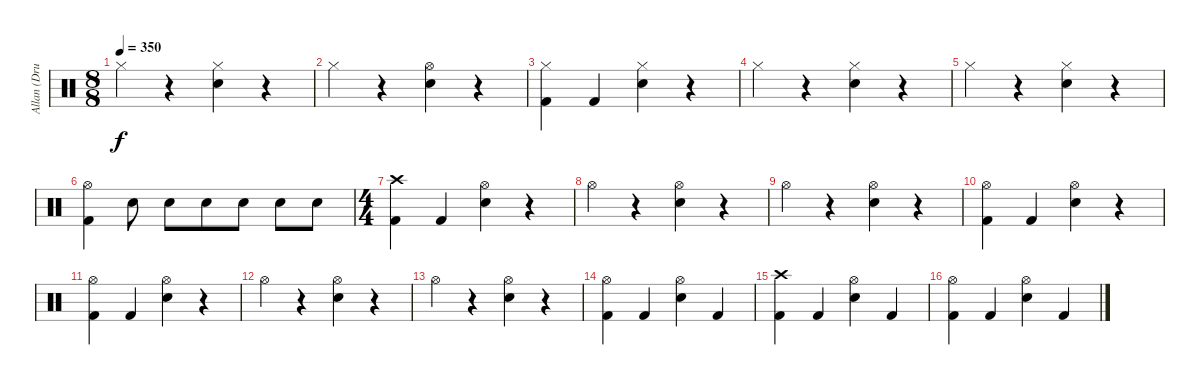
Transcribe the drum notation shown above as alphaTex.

\track ("Allan (Drums)" "Allan (Dru") {instrument percussion}
\staff {score}
\articulation defaults
\ts (8 8)
\tempo 350
\clef neutral
\ks c "Hi-Hat (closed)".4{dy f}
r.4 ("Hi-Hat (closed)" "Snare (hit) 2").4 r.4 |
"Hi-Hat (closed)".4 r.4 ("Hi-Hat (open)" "Snare (hit) 2").4 r.4 |
("Hi-Hat (closed)" "Kick (hit) 2").4 "Kick (hit) 2".4 ("Hi-Hat (closed)" "Snare (hit) 2").4 r.4 |
"Hi-Hat (closed)".4 r.4 ("Hi-Hat (closed)" "Snare (hit) 2").4 r.4 |
"Hi-Hat (closed)".4 r.4 ("Hi-Hat (closed)" "Snare (hit) 2").4 r.4 |
("Hi-Hat (open)" "Kick (hit) 2").4 "Snare (hit) 2".8 "Snare (hit) 2".8 "Snare (hit) 2".8 "Snare (hit) 2".8 "Snare (hit) 2".8 "Snare (hit) 2".8 |
\ts (4 4)
("Crash high (hit)" "Kick (hit) 2").4 "Kick (hit) 2".4 ("Hi-Hat (open)" "Snare (hit) 2").4 r.4 |
"Hi-Hat (open)".4 r.4 ("Hi-Hat (open)" "Snare (hit) 2").4 r.4 |
"Hi-Hat (open)".4 r.4 ("Hi-Hat (open)" "Snare (hit) 2").4 r.4 |
("Hi-Hat (open)" "Kick (hit) 2").4 "Kick (hit) 2".4 ("Hi-Hat (open)" "Snare (hit) 2").4 r.4 |
("Hi-Hat (open)" "Kick (hit) 2").4 "Kick (hit) 2".4 ("Hi-Hat (open)" "Snare (hit) 2").4 r.4 |
"Hi-Hat (open)".4 r.4 ("Hi-Hat (open)" "Snare (hit) 2").4 r.4 |
"Hi-Hat (open)".4 r.4 ("Hi-Hat (open)" "Snare (hit) 2").4 r.4 |
("Hi-Hat (open)" "Kick (hit) 2").4 "Kick (hit) 2".4 ("Hi-Hat (open)" "Snare (hit) 2").4 "Kick (hit) 2".4 |
("Crash high (hit)" "Kick (hit) 2").4 "Kick (hit) 2".4 ("Hi-Hat (open)" "Snare (hit) 2").4 "Kick (hit) 2".4 |
("Hi-Hat (open)" "Kick (hit) 2").4 "Kick (hit) 2".4 ("Hi-Hat (open)" "Snare (hit) 2").4 "Kick (hit) 2".4
